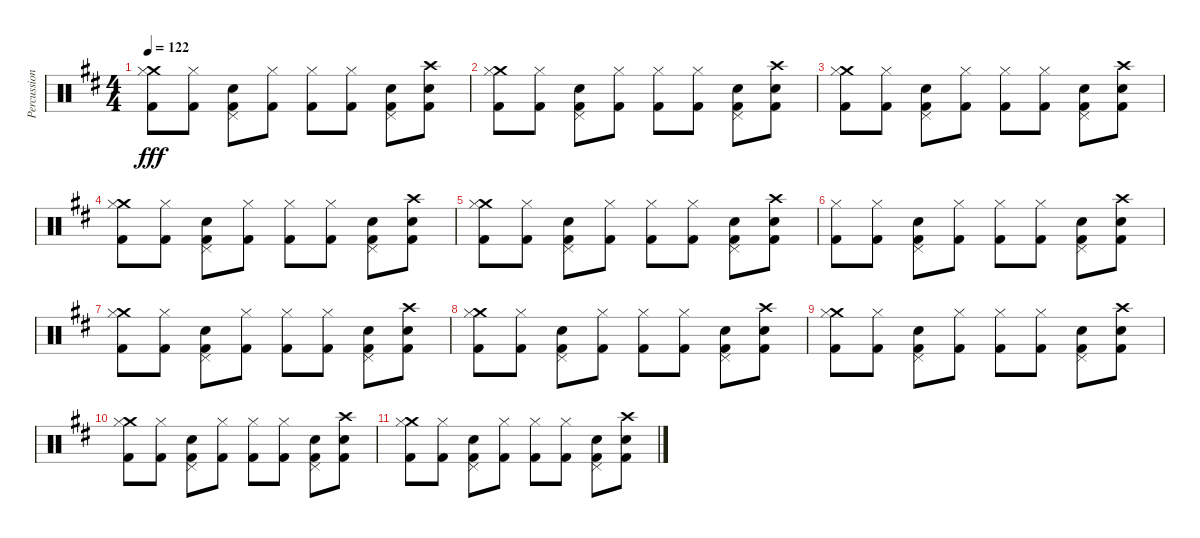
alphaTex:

\track ("Percussion: Boz Burrell" "Percussion") {instrument percussion}
\staff {score}
\articulation defaults
\ts (4 4)
\tempo 122
\clef neutral
\ks d
("Crash medium (hit)" "Hi-Hat (closed)" "Kick (hit) 2").8{dy fff} ("Hi-Hat (closed)" "Kick (hit) 2").8 ("Pedal Hi-Hat (hit)" "Snare (hit) 2" "Kick (hit) 2").8 ("Hi-Hat (closed)" "Kick (hit) 2").8 ("Hi-Hat (closed)" "Kick (hit) 2").8 ("Hi-Hat (closed)" "Kick (hit) 2").8 ("Pedal Hi-Hat (hit)" "Snare (hit) 2" "Kick (hit) 2").8 ("Crash high (hit)" "Snare (hit) 2" "Kick (hit) 2").8 |
("Crash medium (hit)" "Hi-Hat (closed)" "Kick (hit) 2").8 ("Hi-Hat (closed)" "Kick (hit) 2").8 ("Pedal Hi-Hat (hit)" "Snare (hit) 2" "Kick (hit) 2").8 ("Hi-Hat (closed)" "Kick (hit) 2").8 ("Hi-Hat (closed)" "Kick (hit) 2").8 ("Hi-Hat (closed)" "Kick (hit) 2").8 ("Pedal Hi-Hat (hit)" "Snare (hit) 2" "Kick (hit) 2").8 ("Crash high (hit)" "Snare (hit) 2" "Kick (hit) 2").8 |
("Crash medium (hit)" "Hi-Hat (closed)" "Kick (hit) 2").8 ("Hi-Hat (closed)" "Kick (hit) 2").8 ("Pedal Hi-Hat (hit)" "Snare (hit) 2" "Kick (hit) 2").8 ("Hi-Hat (closed)" "Kick (hit) 2").8 ("Hi-Hat (closed)" "Kick (hit) 2").8 ("Hi-Hat (closed)" "Kick (hit) 2").8 ("Pedal Hi-Hat (hit)" "Snare (hit) 2" "Kick (hit) 2").8 ("Crash high (hit)" "Snare (hit) 2" "Kick (hit) 2").8 |
("Crash medium (hit)" "Hi-Hat (closed)" "Kick (hit) 2").8 ("Hi-Hat (closed)" "Kick (hit) 2").8 ("Pedal Hi-Hat (hit)" "Snare (hit) 2" "Kick (hit) 2").8 ("Hi-Hat (closed)" "Kick (hit) 2").8 ("Hi-Hat (closed)" "Kick (hit) 2").8 ("Hi-Hat (closed)" "Kick (hit) 2").8 ("Pedal Hi-Hat (hit)" "Snare (hit) 2" "Kick (hit) 2").8 ("Crash high (hit)" "Snare (hit) 2" "Kick (hit) 2").8 |
("Crash medium (hit)" "Hi-Hat (closed)" "Kick (hit) 2").8 ("Hi-Hat (closed)" "Kick (hit) 2").8 ("Pedal Hi-Hat (hit)" "Snare (hit) 2" "Kick (hit) 2").8 ("Hi-Hat (closed)" "Kick (hit) 2").8 ("Hi-Hat (closed)" "Kick (hit) 2").8 ("Hi-Hat (closed)" "Kick (hit) 2").8 ("Pedal Hi-Hat (hit)" "Snare (hit) 2" "Kick (hit) 2").8 ("Crash high (hit)" "Snare (hit) 2" "Kick (hit) 2").8 |
("Hi-Hat (closed)" "Kick (hit) 2").8 ("Hi-Hat (closed)" "Kick (hit) 2").8 ("Pedal Hi-Hat (hit)" "Snare (hit) 2" "Kick (hit) 2").8 ("Hi-Hat (closed)" "Kick (hit) 2").8 ("Hi-Hat (closed)" "Kick (hit) 2").8 ("Hi-Hat (closed)" "Kick (hit) 2").8 ("Pedal Hi-Hat (hit)" "Snare (hit) 2" "Kick (hit) 2").8 ("Crash high (hit)" "Snare (hit) 2" "Kick (hit) 2").8 |
("Crash medium (hit)" "Hi-Hat (closed)" "Kick (hit) 2").8 ("Hi-Hat (closed)" "Kick (hit) 2").8 ("Pedal Hi-Hat (hit)" "Snare (hit) 2" "Kick (hit) 2").8 ("Hi-Hat (closed)" "Kick (hit) 2").8 ("Hi-Hat (closed)" "Kick (hit) 2").8 ("Hi-Hat (closed)" "Kick (hit) 2").8 ("Pedal Hi-Hat (hit)" "Snare (hit) 2" "Kick (hit) 2").8 ("Crash high (hit)" "Snare (hit) 2" "Kick (hit) 2").8 |
("Crash medium (hit)" "Hi-Hat (closed)" "Kick (hit) 2").8 ("Hi-Hat (closed)" "Kick (hit) 2").8 ("Pedal Hi-Hat (hit)" "Snare (hit) 2" "Kick (hit) 2").8 ("Hi-Hat (closed)" "Kick (hit) 2").8 ("Hi-Hat (closed)" "Kick (hit) 2").8 ("Hi-Hat (closed)" "Kick (hit) 2").8 ("Pedal Hi-Hat (hit)" "Snare (hit) 2" "Kick (hit) 2").8 ("Crash high (hit)" "Snare (hit) 2" "Kick (hit) 2").8 |
("Crash medium (hit)" "Hi-Hat (closed)" "Kick (hit) 2").8 ("Hi-Hat (closed)" "Kick (hit) 2").8 ("Pedal Hi-Hat (hit)" "Snare (hit) 2" "Kick (hit) 2").8 ("Hi-Hat (closed)" "Kick (hit) 2").8 ("Hi-Hat (closed)" "Kick (hit) 2").8 ("Hi-Hat (closed)" "Kick (hit) 2").8 ("Pedal Hi-Hat (hit)" "Snare (hit) 2" "Kick (hit) 2").8 ("Crash high (hit)" "Snare (hit) 2" "Kick (hit) 2").8 |
("Crash medium (hit)" "Hi-Hat (closed)" "Kick (hit) 2").8 ("Hi-Hat (closed)" "Kick (hit) 2").8 ("Pedal Hi-Hat (hit)" "Snare (hit) 2" "Kick (hit) 2").8 ("Hi-Hat (closed)" "Kick (hit) 2").8 ("Hi-Hat (closed)" "Kick (hit) 2").8 ("Hi-Hat (closed)" "Kick (hit) 2").8 ("Pedal Hi-Hat (hit)" "Snare (hit) 2" "Kick (hit) 2").8 ("Crash high (hit)" "Snare (hit) 2" "Kick (hit) 2").8 |
("Crash medium (hit)" "Hi-Hat (closed)" "Kick (hit) 2").8 ("Hi-Hat (closed)" "Kick (hit) 2").8 ("Pedal Hi-Hat (hit)" "Snare (hit) 2" "Kick (hit) 2").8 ("Hi-Hat (closed)" "Kick (hit) 2").8 ("Hi-Hat (closed)" "Kick (hit) 2").8 ("Hi-Hat (closed)" "Kick (hit) 2").8 ("Pedal Hi-Hat (hit)" "Snare (hit) 2" "Kick (hit) 2").8 ("Crash high (hit)" "Snare (hit) 2" "Kick (hit) 2").8
